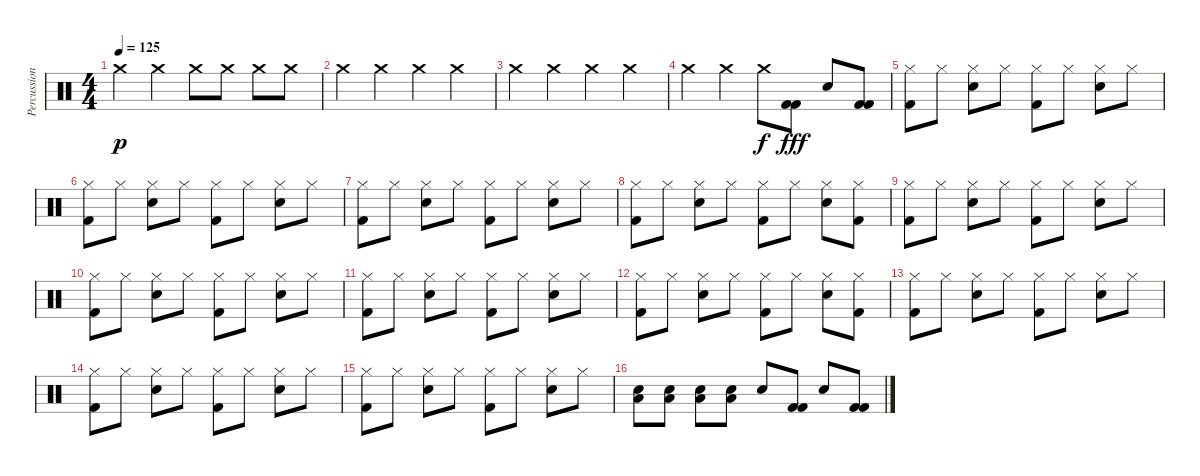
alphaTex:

\track ("Percussion" "Percussion") {instrument percussion}
\staff {score}
\articulation defaults
\ts (4 4)
\tempo 125
\clef neutral
\ks c "Crash medium (hit)".4{dy p} "Crash medium (hit)".4 "Crash medium (hit)".8 "Crash medium (hit)".8 "Crash medium (hit)".8 "Crash medium (hit)".8
|
"Crash medium (hit)".4 "Crash medium (hit)".4 "Crash medium (hit)".4 "Crash medium (hit)".4 |
"Crash medium (hit)".4 "Crash medium (hit)".4 "Crash medium (hit)".4 "Crash medium (hit)".4 |
"Crash medium (hit)".4 "Crash medium (hit)".4 "Crash medium (hit)".8{dy f} ("Kick (hit) 2" "Kick (hit) 2").8{dy fff} "Snare (hit) 2".8 ("Kick (hit) 2" "Kick (hit) 2").8 |
("Hi-Hat (closed)" "Kick (hit) 2").8 "Hi-Hat (closed)".8 ("Hi-Hat (closed)" "Snare (hit) 2").8 "Hi-Hat (closed)".8 ("Hi-Hat (closed)" "Kick (hit) 2").8 "Hi-Hat (closed)".8 ("Hi-Hat (closed)" "Snare (hit) 2").8 "Hi-Hat (closed)".8 |
("Hi-Hat (closed)" "Kick (hit) 2").8 "Hi-Hat (closed)".8 ("Hi-Hat (closed)" "Snare (hit) 2").8 "Hi-Hat (closed)".8 ("Hi-Hat (closed)" "Kick (hit) 2").8 "Hi-Hat (closed)".8 ("Hi-Hat (closed)" "Snare (hit) 2").8 "Hi-Hat (closed)".8 |
("Hi-Hat (closed)" "Kick (hit) 2").8 "Hi-Hat (closed)".8 ("Hi-Hat (closed)" "Snare (hit) 2").8 "Hi-Hat (closed)".8 ("Hi-Hat (closed)" "Kick (hit) 2").8 "Hi-Hat (closed)".8 ("Hi-Hat (closed)" "Snare (hit) 2").8 "Hi-Hat (closed)".8 |
("Hi-Hat (closed)" "Kick (hit) 2").8 "Hi-Hat (closed)".8 ("Hi-Hat (closed)" "Snare (hit) 2").8 "Hi-Hat (closed)".8 ("Hi-Hat (closed)" "Kick (hit) 2").8 "Hi-Hat (closed)".8 ("Hi-Hat (closed)" "Snare (hit) 2").8 ("Hi-Hat (closed)" "Kick (hit) 2").8 |
("Hi-Hat (closed)" "Kick (hit) 2").8 "Hi-Hat (closed)".8 ("Hi-Hat (closed)" "Snare (hit) 2").8 "Hi-Hat (closed)".8 ("Hi-Hat (closed)" "Kick (hit) 2").8 "Hi-Hat (closed)".8 ("Hi-Hat (closed)" "Snare (hit) 2").8 "Hi-Hat (closed)".8 |
("Hi-Hat (closed)" "Kick (hit) 2").8 "Hi-Hat (closed)".8 ("Hi-Hat (closed)" "Snare (hit) 2").8 "Hi-Hat (closed)".8 ("Hi-Hat (closed)" "Kick (hit) 2").8 "Hi-Hat (closed)".8 ("Hi-Hat (closed)" "Snare (hit) 2").8 "Hi-Hat (closed)".8 |
("Hi-Hat (closed)" "Kick (hit) 2").8 "Hi-Hat (closed)".8 ("Hi-Hat (closed)" "Snare (hit) 2").8 "Hi-Hat (closed)".8 ("Hi-Hat (closed)" "Kick (hit) 2").8 "Hi-Hat (closed)".8 ("Hi-Hat (closed)" "Snare (hit) 2").8 "Hi-Hat (closed)".8 |
("Hi-Hat (closed)" "Kick (hit) 2").8 "Hi-Hat (closed)".8 ("Hi-Hat (closed)" "Snare (hit) 2").8 "Hi-Hat (closed)".8 ("Hi-Hat (closed)" "Kick (hit) 2").8 "Hi-Hat (closed)".8 ("Hi-Hat (closed)" "Snare (hit) 2").8 ("Hi-Hat (closed)" "Kick (hit) 2").8 |
("Hi-Hat (closed)" "Kick (hit) 2").8 "Hi-Hat (closed)".8 ("Hi-Hat (closed)" "Snare (hit) 2").8 "Hi-Hat (closed)".8 ("Hi-Hat (closed)" "Kick (hit) 2").8 "Hi-Hat (closed)".8 ("Hi-Hat (closed)" "Snare (hit) 2").8 "Hi-Hat (closed)".8 |
("Hi-Hat (closed)" "Kick (hit) 2").8 "Hi-Hat (closed)".8 ("Hi-Hat (closed)" "Snare (hit) 2").8 "Hi-Hat (closed)".8 ("Hi-Hat (closed)" "Kick (hit) 2").8 "Hi-Hat (closed)".8 ("Hi-Hat (closed)" "Snare (hit) 2").8 "Hi-Hat (closed)".8 |
("Hi-Hat (closed)" "Kick (hit) 2").8 "Hi-Hat (closed)".8 ("Hi-Hat (closed)" "Snare (hit) 2").8 "Hi-Hat (closed)".8 ("Hi-Hat (closed)" "Kick (hit) 2").8 "Hi-Hat (closed)".8 ("Hi-Hat (closed)" "Snare (hit) 2").8 "Hi-Hat (closed)".8 |
("Low Floor Tom (hit)" "Snare (hit) 2").8 ("Low Floor Tom (hit)" "Snare (hit) 2").8 ("Low Floor Tom (hit)" "Snare (hit) 2").8 ("Low Floor Tom (hit)" "Snare (hit) 2").8 "Snare (hit) 2".8 ("Kick (hit) 2" "Kick (hit) 2").8 "Snare (hit) 2".8 ("Kick (hit) 2" "Kick (hit) 2").8
